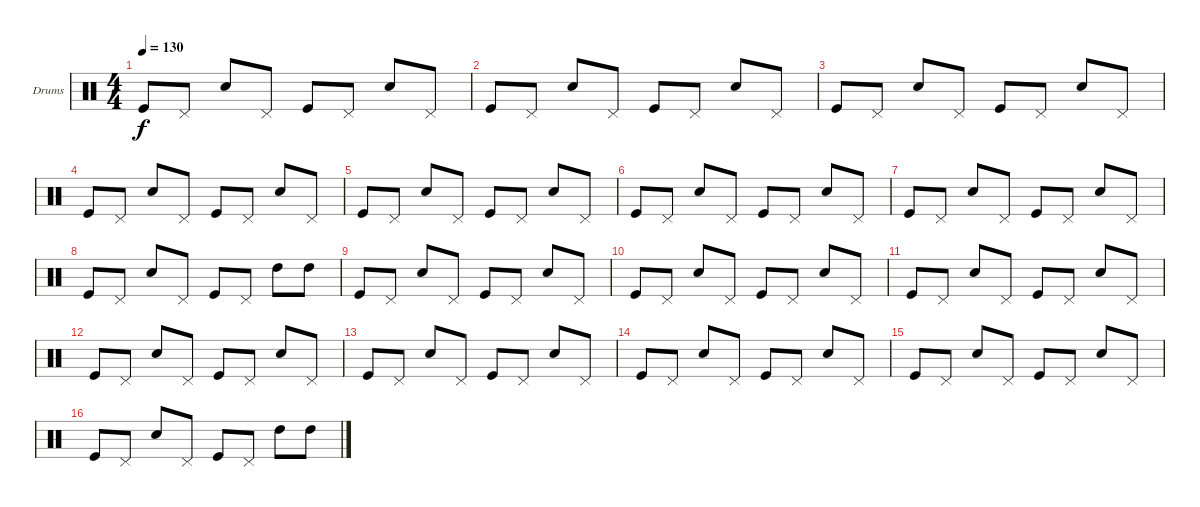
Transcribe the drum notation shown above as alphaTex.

\bracketExtendMode groupsimilarinstruments
\firstSystemTrackNameOrientation horizontal
\otherSystemsTrackNameOrientation horizontal
\track ("Drumkit" "Drums") {instrument percussion}
\staff {score}
\articulation defaults
\ts (4 4)
\tempo 130
\clef neutral
\ks c "Kick (hit)".8{dy f} "Pedal Hi-Hat (hit)".8 "Snare (hit) 2".8 "Pedal Hi-Hat (hit)".8 "Kick (hit)".8 "Pedal Hi-Hat (hit)".8 "Snare (hit) 2".8 "Pedal Hi-Hat (hit)".8
|
"Kick (hit)".8 "Pedal Hi-Hat (hit)".8 "Snare (hit) 2".8 "Pedal Hi-Hat (hit)".8 "Kick (hit)".8 "Pedal Hi-Hat (hit)".8 "Snare (hit) 2".8 "Pedal Hi-Hat (hit)".8 |
"Kick (hit)".8 "Pedal Hi-Hat (hit)".8 "Snare (hit) 2".8 "Pedal Hi-Hat (hit)".8 "Kick (hit)".8 "Pedal Hi-Hat (hit)".8 "Snare (hit) 2".8 "Pedal Hi-Hat (hit)".8 |
"Kick (hit)".8 "Pedal Hi-Hat (hit)".8 "Snare (hit) 2".8 "Pedal Hi-Hat (hit)".8 "Kick (hit)".8 "Pedal Hi-Hat (hit)".8 "Snare (hit) 2".8 "Pedal Hi-Hat (hit)".8 |
"Kick (hit)".8 "Pedal Hi-Hat (hit)".8 "Snare (hit) 2".8 "Pedal Hi-Hat (hit)".8 "Kick (hit)".8 "Pedal Hi-Hat (hit)".8 "Snare (hit) 2".8 "Pedal Hi-Hat (hit)".8 |
"Kick (hit)".8 "Pedal Hi-Hat (hit)".8 "Snare (hit) 2".8 "Pedal Hi-Hat (hit)".8 "Kick (hit)".8 "Pedal Hi-Hat (hit)".8 "Snare (hit) 2".8 "Pedal Hi-Hat (hit)".8 |
"Kick (hit)".8 "Pedal Hi-Hat (hit)".8 "Snare (hit) 2".8 "Pedal Hi-Hat (hit)".8 "Kick (hit)".8 "Pedal Hi-Hat (hit)".8 "Snare (hit) 2".8 "Pedal Hi-Hat (hit)".8 |
"Kick (hit)".8 "Pedal Hi-Hat (hit)".8 "Snare (hit) 2".8 "Pedal Hi-Hat (hit)".8 "Kick (hit)".8 "Pedal Hi-Hat (hit)".8 "High Tom (hit)".8 "High Tom (hit)".8 |
"Kick (hit)".8 "Pedal Hi-Hat (hit)".8 "Snare (hit) 2".8 "Pedal Hi-Hat (hit)".8 "Kick (hit)".8 "Pedal Hi-Hat (hit)".8 "Snare (hit) 2".8 "Pedal Hi-Hat (hit)".8 |
"Kick (hit)".8 "Pedal Hi-Hat (hit)".8 "Snare (hit) 2".8 "Pedal Hi-Hat (hit)".8 "Kick (hit)".8 "Pedal Hi-Hat (hit)".8 "Snare (hit) 2".8 "Pedal Hi-Hat (hit)".8 |
"Kick (hit)".8 "Pedal Hi-Hat (hit)".8 "Snare (hit) 2".8 "Pedal Hi-Hat (hit)".8 "Kick (hit)".8 "Pedal Hi-Hat (hit)".8 "Snare (hit) 2".8 "Pedal Hi-Hat (hit)".8 |
"Kick (hit)".8 "Pedal Hi-Hat (hit)".8 "Snare (hit) 2".8 "Pedal Hi-Hat (hit)".8 "Kick (hit)".8 "Pedal Hi-Hat (hit)".8 "Snare (hit) 2".8 "Pedal Hi-Hat (hit)".8 |
"Kick (hit)".8 "Pedal Hi-Hat (hit)".8 "Snare (hit) 2".8 "Pedal Hi-Hat (hit)".8 "Kick (hit)".8 "Pedal Hi-Hat (hit)".8 "Snare (hit) 2".8 "Pedal Hi-Hat (hit)".8 |
"Kick (hit)".8 "Pedal Hi-Hat (hit)".8 "Snare (hit) 2".8 "Pedal Hi-Hat (hit)".8 "Kick (hit)".8 "Pedal Hi-Hat (hit)".8 "Snare (hit) 2".8 "Pedal Hi-Hat (hit)".8 |
"Kick (hit)".8 "Pedal Hi-Hat (hit)".8 "Snare (hit) 2".8 "Pedal Hi-Hat (hit)".8 "Kick (hit)".8 "Pedal Hi-Hat (hit)".8 "Snare (hit) 2".8 "Pedal Hi-Hat (hit)".8 |
"Kick (hit)".8 "Pedal Hi-Hat (hit)".8 "Snare (hit) 2".8 "Pedal Hi-Hat (hit)".8 "Kick (hit)".8 "Pedal Hi-Hat (hit)".8 "High Tom (hit)".8 "High Tom (hit)".8
